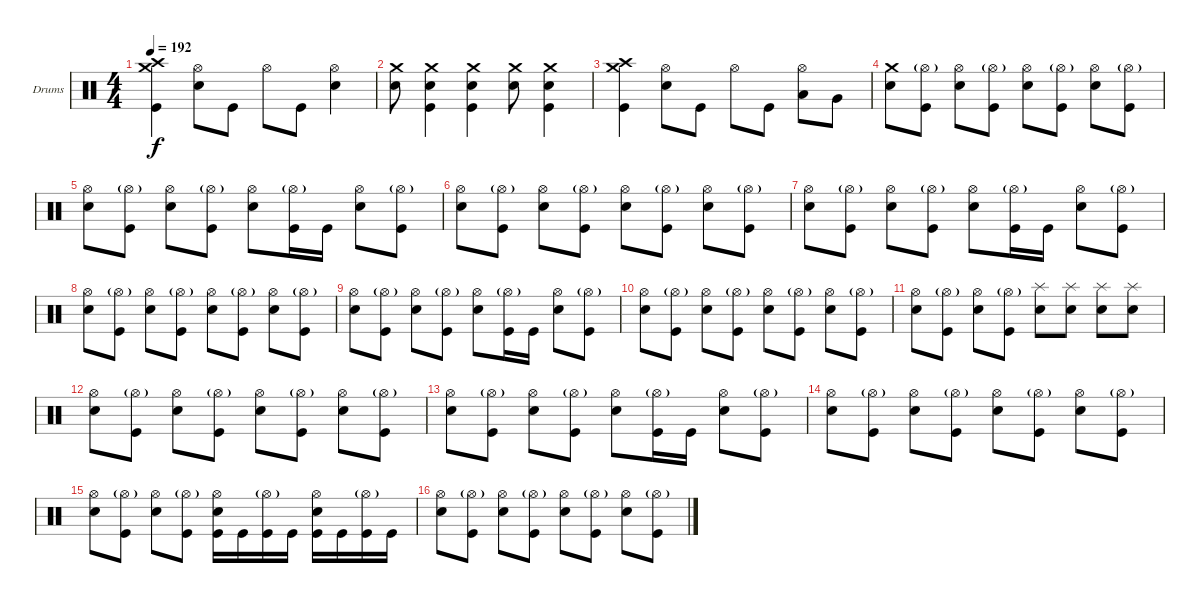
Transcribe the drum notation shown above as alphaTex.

\bracketExtendMode groupsimilarinstruments
\firstSystemTrackNameOrientation horizontal
\otherSystemsTrackNameOrientation horizontal
\track ("Corey Friedlander" "Drums") {instrument percussion}
\staff {score}
\articulation defaults
\ts (4 4)
\tempo 192
\clef neutral
\ks aminor
("Crash medium (hit)" "Crash high (hit)" "Kick (hit)").4{dy f} ("Snare (hit) 2" "Hi-Hat (open)").8 "Kick (hit)".8 "Hi-Hat (open)".8 "Kick (hit)".8 ("Snare (hit) 2" "Hi-Hat (open)").4 |
("Snare (hit) 2" "Crash medium (hit)").8 ("Snare (hit) 2" "Crash medium (hit)" "Kick (hit)").4 ("Snare (hit) 2" "Crash medium (hit)" "Kick (hit)").4 ("Snare (hit) 2" "Crash medium (hit)").8 ("Snare (hit) 2" "Crash medium (hit)" "Kick (hit)").4 |
("Crash medium (hit)" "Crash high (hit)" "Kick (hit)").4 ("Snare (hit) 2" "Hi-Hat (open)").8 "Kick (hit)".8 "Hi-Hat (open)".8 "Kick (hit)".8 ("Hi-Hat (open)" "Low Tom (hit)").8 "Very Low Tom (hit)".8 |
("Snare (hit) 2" "Crash medium (hit)").8 ("Kick (hit)" "Hi-Hat (open)"{g}).8 ("Snare (hit) 2" "Hi-Hat (open)").8 ("Kick (hit)" "Hi-Hat (open)"{g}).8 ("Snare (hit) 2" "Hi-Hat (open)").8 ("Kick (hit)" "Hi-Hat (open)"{g}).8 ("Snare (hit) 2" "Hi-Hat (open)").8 ("Kick (hit)" "Hi-Hat (open)"{g}).8 |
("Snare (hit) 2" "Hi-Hat (open)").8 ("Kick (hit)" "Hi-Hat (open)"{g}).8 ("Snare (hit) 2" "Hi-Hat (open)").8 ("Kick (hit)" "Hi-Hat (open)"{g}).8 ("Snare (hit) 2" "Hi-Hat (open)").8 ("Kick (hit)" "Hi-Hat (open)"{g}).16 "Kick (hit)".16 ("Snare (hit) 2" "Hi-Hat (open)").8 ("Kick (hit)" "Hi-Hat (open)"{g}).8 |
("Snare (hit) 2" "Hi-Hat (open)").8 ("Kick (hit)" "Hi-Hat (open)"{g}).8 ("Snare (hit) 2" "Hi-Hat (open)").8 ("Kick (hit)" "Hi-Hat (open)"{g}).8 ("Snare (hit) 2" "Hi-Hat (open)").8 ("Kick (hit)" "Hi-Hat (open)"{g}).8 ("Snare (hit) 2" "Hi-Hat (open)").8 ("Kick (hit)" "Hi-Hat (open)"{g}).8 |
("Snare (hit) 2" "Hi-Hat (open)").8 ("Kick (hit)" "Hi-Hat (open)"{g}).8 ("Snare (hit) 2" "Hi-Hat (open)").8 ("Kick (hit)" "Hi-Hat (open)"{g}).8 ("Snare (hit) 2" "Hi-Hat (open)").8 ("Kick (hit)" "Hi-Hat (open)"{g}).16 "Kick (hit)".16 ("Snare (hit) 2" "Hi-Hat (open)").8 ("Kick (hit)" "Hi-Hat (open)"{g}).8 |
("Snare (hit) 2" "Hi-Hat (open)").8 ("Kick (hit)" "Hi-Hat (open)"{g}).8 ("Snare (hit) 2" "Hi-Hat (open)").8 ("Kick (hit)" "Hi-Hat (open)"{g}).8 ("Snare (hit) 2" "Hi-Hat (open)").8 ("Kick (hit)" "Hi-Hat (open)"{g}).8 ("Snare (hit) 2" "Hi-Hat (open)").8 ("Kick (hit)" "Hi-Hat (open)"{g}).8 |
("Snare (hit) 2" "Hi-Hat (open)").8 ("Kick (hit)" "Hi-Hat (open)"{g}).8 ("Snare (hit) 2" "Hi-Hat (open)").8 ("Kick (hit)" "Hi-Hat (open)"{g}).8 ("Snare (hit) 2" "Hi-Hat (open)").8 ("Kick (hit)" "Hi-Hat (open)"{g}).16 "Kick (hit)".16 ("Snare (hit) 2" "Hi-Hat (open)").8 ("Kick (hit)" "Hi-Hat (open)"{g}).8 |
("Snare (hit) 2" "Hi-Hat (open)").8 ("Kick (hit)" "Hi-Hat (open)"{g}).8 ("Snare (hit) 2" "Hi-Hat (open)").8 ("Kick (hit)" "Hi-Hat (open)"{g}).8 ("Snare (hit) 2" "Hi-Hat (open)").8 ("Kick (hit)" "Hi-Hat (open)"{g}).8 ("Snare (hit) 2" "Hi-Hat (open)").8 ("Kick (hit)" "Hi-Hat (open)"{g}).8 |
("Snare (hit) 2" "Hi-Hat (open)").8 ("Kick (hit)" "Hi-Hat (open)"{g}).8 ("Snare (hit) 2" "Hi-Hat (open)").8 ("Kick (hit)" "Hi-Hat (open)"{g}).8 ("Snare (hit) 2" "Splash (hit)").8 ("Snare (hit) 2" "Splash (hit)").8 ("Snare (hit) 2" "Splash (hit)").8 ("Snare (hit) 2" "Splash (hit)").8 |
("Snare (hit) 2" "Hi-Hat (open)").8 ("Kick (hit)" "Hi-Hat (open)"{g}).8 ("Snare (hit) 2" "Hi-Hat (open)").8 ("Kick (hit)" "Hi-Hat (open)"{g}).8 ("Snare (hit) 2" "Hi-Hat (open)").8 ("Kick (hit)" "Hi-Hat (open)"{g}).8 ("Snare (hit) 2" "Hi-Hat (open)").8 ("Kick (hit)" "Hi-Hat (open)"{g}).8 |
("Snare (hit) 2" "Hi-Hat (open)").8 ("Kick (hit)" "Hi-Hat (open)"{g}).8 ("Snare (hit) 2" "Hi-Hat (open)").8 ("Kick (hit)" "Hi-Hat (open)"{g}).8 ("Snare (hit) 2" "Hi-Hat (open)").8 ("Kick (hit)" "Hi-Hat (open)"{g}).16 "Kick (hit)".16 ("Snare (hit) 2" "Hi-Hat (open)").8 ("Kick (hit)" "Hi-Hat (open)"{g}).8 |
("Snare (hit) 2" "Hi-Hat (open)").8 ("Kick (hit)" "Hi-Hat (open)"{g}).8 ("Snare (hit) 2" "Hi-Hat (open)").8 ("Kick (hit)" "Hi-Hat (open)"{g}).8 ("Snare (hit) 2" "Hi-Hat (open)").8 ("Kick (hit)" "Hi-Hat (open)"{g}).8 ("Snare (hit) 2" "Hi-Hat (open)").8 ("Kick (hit)" "Hi-Hat (open)"{g}).8 |
("Snare (hit) 2" "Hi-Hat (open)").8 ("Kick (hit)" "Hi-Hat (open)"{g}).8 ("Snare (hit) 2" "Hi-Hat (open)").8 ("Kick (hit)" "Hi-Hat (open)"{g}).8 ("Snare (hit) 2" "Hi-Hat (open)" "Kick (hit)").16 "Kick (hit)".16 ("Kick (hit)" "Hi-Hat (open)"{g}).16 "Kick (hit)".16 ("Kick (hit)" "Hi-Hat (open)" "Snare (hit) 2").16 "Kick (hit)".16 ("Kick (hit)" "Hi-Hat (open)"{g}).16 "Kick (hit)".16 |
("Snare (hit) 2" "Hi-Hat (open)").8 ("Kick (hit)" "Hi-Hat (open)"{g}).8 ("Snare (hit) 2" "Hi-Hat (open)").8 ("Kick (hit)" "Hi-Hat (open)"{g}).8 ("Snare (hit) 2" "Hi-Hat (open)").8 ("Kick (hit)" "Hi-Hat (open)"{g}).8 ("Snare (hit) 2" "Hi-Hat (open)").8 ("Kick (hit)" "Hi-Hat (open)"{g}).8
